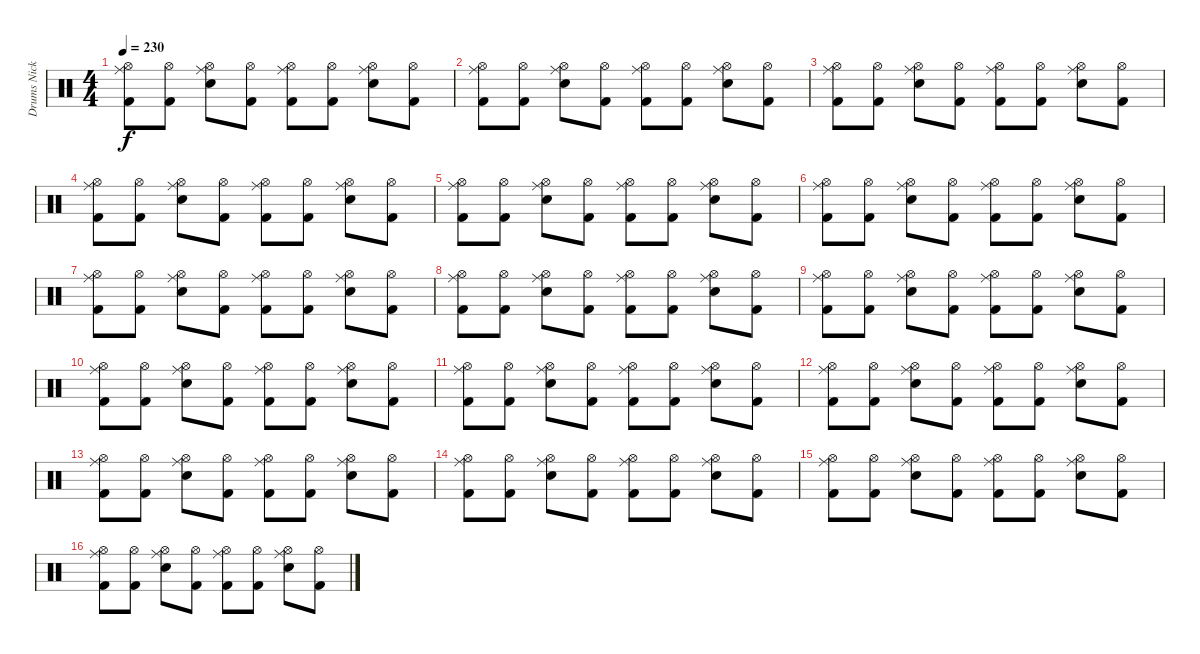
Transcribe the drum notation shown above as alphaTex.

\track ("Drums Nicko McBrain" "Drums Nick") {instrument percussion}
\staff {score}
\articulation defaults
\ts (4 4)
\tempo 230
\clef neutral
\ks c
("Hi-Hat (open)" "Ride (middle)" "Kick (hit) 2").8{dy f} ("Hi-Hat (open)" "Kick (hit) 2").8 ("Hi-Hat (open)" "Ride (middle)" "Snare (hit) 2").8 ("Hi-Hat (open)" "Kick (hit) 2").8 ("Hi-Hat (open)" "Ride (middle)" "Kick (hit) 2").8 ("Hi-Hat (open)" "Kick (hit) 2").8 ("Hi-Hat (open)" "Ride (middle)" "Snare (hit) 2").8 ("Hi-Hat (open)" "Kick (hit) 2").8 |
("Hi-Hat (open)" "Ride (middle)" "Kick (hit) 2").8 ("Hi-Hat (open)" "Kick (hit) 2").8 ("Hi-Hat (open)" "Ride (middle)" "Snare (hit) 2").8 ("Hi-Hat (open)" "Kick (hit) 2").8 ("Hi-Hat (open)" "Ride (middle)" "Kick (hit) 2").8 ("Hi-Hat (open)" "Kick (hit) 2").8 ("Hi-Hat (open)" "Ride (middle)" "Snare (hit) 2").8 ("Hi-Hat (open)" "Kick (hit) 2").8 |
("Hi-Hat (open)" "Ride (middle)" "Kick (hit) 2").8 ("Hi-Hat (open)" "Kick (hit) 2").8 ("Hi-Hat (open)" "Ride (middle)" "Snare (hit) 2").8 ("Hi-Hat (open)" "Kick (hit) 2").8 ("Hi-Hat (open)" "Ride (middle)" "Kick (hit) 2").8 ("Hi-Hat (open)" "Kick (hit) 2").8 ("Hi-Hat (open)" "Ride (middle)" "Snare (hit) 2").8 ("Hi-Hat (open)" "Kick (hit) 2").8 |
("Hi-Hat (open)" "Ride (middle)" "Kick (hit) 2").8 ("Hi-Hat (open)" "Kick (hit) 2").8 ("Hi-Hat (open)" "Ride (middle)" "Snare (hit) 2").8 ("Hi-Hat (open)" "Kick (hit) 2").8 ("Hi-Hat (open)" "Ride (middle)" "Kick (hit) 2").8 ("Hi-Hat (open)" "Kick (hit) 2").8 ("Hi-Hat (open)" "Ride (middle)" "Snare (hit) 2").8 ("Hi-Hat (open)" "Kick (hit) 2").8 |
("Hi-Hat (open)" "Ride (middle)" "Kick (hit) 2").8 ("Hi-Hat (open)" "Kick (hit) 2").8 ("Hi-Hat (open)" "Ride (middle)" "Snare (hit) 2").8 ("Hi-Hat (open)" "Kick (hit) 2").8 ("Hi-Hat (open)" "Ride (middle)" "Kick (hit) 2").8 ("Hi-Hat (open)" "Kick (hit) 2").8 ("Hi-Hat (open)" "Ride (middle)" "Snare (hit) 2").8 ("Hi-Hat (open)" "Kick (hit) 2").8 |
("Hi-Hat (open)" "Ride (middle)" "Kick (hit) 2").8 ("Hi-Hat (open)" "Kick (hit) 2").8 ("Hi-Hat (open)" "Ride (middle)" "Snare (hit) 2").8 ("Hi-Hat (open)" "Kick (hit) 2").8 ("Hi-Hat (open)" "Ride (middle)" "Kick (hit) 2").8 ("Hi-Hat (open)" "Kick (hit) 2").8 ("Hi-Hat (open)" "Ride (middle)" "Snare (hit) 2").8 ("Hi-Hat (open)" "Kick (hit) 2").8 |
("Hi-Hat (open)" "Ride (middle)" "Kick (hit) 2").8 ("Hi-Hat (open)" "Kick (hit) 2").8 ("Hi-Hat (open)" "Ride (middle)" "Snare (hit) 2").8 ("Hi-Hat (open)" "Kick (hit) 2").8 ("Hi-Hat (open)" "Ride (middle)" "Kick (hit) 2").8 ("Hi-Hat (open)" "Kick (hit) 2").8 ("Hi-Hat (open)" "Ride (middle)" "Snare (hit) 2").8 ("Hi-Hat (open)" "Kick (hit) 2").8 |
("Hi-Hat (open)" "Ride (middle)" "Kick (hit) 2").8 ("Hi-Hat (open)" "Kick (hit) 2").8 ("Hi-Hat (open)" "Ride (middle)" "Snare (hit) 2").8 ("Hi-Hat (open)" "Kick (hit) 2").8 ("Hi-Hat (open)" "Ride (middle)" "Kick (hit) 2").8 ("Hi-Hat (open)" "Kick (hit) 2").8 ("Hi-Hat (open)" "Ride (middle)" "Snare (hit) 2").8 ("Hi-Hat (open)" "Kick (hit) 2").8 |
("Hi-Hat (open)" "Ride (middle)" "Kick (hit) 2").8 ("Hi-Hat (open)" "Kick (hit) 2").8 ("Hi-Hat (open)" "Ride (middle)" "Snare (hit) 2").8 ("Hi-Hat (open)" "Kick (hit) 2").8 ("Hi-Hat (open)" "Ride (middle)" "Kick (hit) 2").8 ("Hi-Hat (open)" "Kick (hit) 2").8 ("Hi-Hat (open)" "Ride (middle)" "Snare (hit) 2").8 ("Hi-Hat (open)" "Kick (hit) 2").8 |
("Hi-Hat (open)" "Ride (middle)" "Kick (hit) 2").8 ("Hi-Hat (open)" "Kick (hit) 2").8 ("Hi-Hat (open)" "Ride (middle)" "Snare (hit) 2").8 ("Hi-Hat (open)" "Kick (hit) 2").8 ("Hi-Hat (open)" "Ride (middle)" "Kick (hit) 2").8 ("Hi-Hat (open)" "Kick (hit) 2").8 ("Hi-Hat (open)" "Ride (middle)" "Snare (hit) 2").8 ("Hi-Hat (open)" "Kick (hit) 2").8 |
("Hi-Hat (open)" "Ride (middle)" "Kick (hit) 2").8 ("Hi-Hat (open)" "Kick (hit) 2").8 ("Hi-Hat (open)" "Ride (middle)" "Snare (hit) 2").8 ("Hi-Hat (open)" "Kick (hit) 2").8 ("Hi-Hat (open)" "Ride (middle)" "Kick (hit) 2").8 ("Hi-Hat (open)" "Kick (hit) 2").8 ("Hi-Hat (open)" "Ride (middle)" "Snare (hit) 2").8 ("Hi-Hat (open)" "Kick (hit) 2").8 |
("Hi-Hat (open)" "Ride (middle)" "Kick (hit) 2").8 ("Hi-Hat (open)" "Kick (hit) 2").8 ("Hi-Hat (open)" "Ride (middle)" "Snare (hit) 2").8 ("Hi-Hat (open)" "Kick (hit) 2").8 ("Hi-Hat (open)" "Ride (middle)" "Kick (hit) 2").8 ("Hi-Hat (open)" "Kick (hit) 2").8 ("Hi-Hat (open)" "Ride (middle)" "Snare (hit) 2").8 ("Hi-Hat (open)" "Kick (hit) 2").8 |
("Hi-Hat (open)" "Ride (middle)" "Kick (hit) 2").8 ("Hi-Hat (open)" "Kick (hit) 2").8 ("Hi-Hat (open)" "Ride (middle)" "Snare (hit) 2").8 ("Hi-Hat (open)" "Kick (hit) 2").8 ("Hi-Hat (open)" "Ride (middle)" "Kick (hit) 2").8 ("Hi-Hat (open)" "Kick (hit) 2").8 ("Hi-Hat (open)" "Ride (middle)" "Snare (hit) 2").8 ("Hi-Hat (open)" "Kick (hit) 2").8 |
("Hi-Hat (open)" "Ride (middle)" "Kick (hit) 2").8 ("Hi-Hat (open)" "Kick (hit) 2").8 ("Hi-Hat (open)" "Ride (middle)" "Snare (hit) 2").8 ("Hi-Hat (open)" "Kick (hit) 2").8 ("Hi-Hat (open)" "Ride (middle)" "Kick (hit) 2").8 ("Hi-Hat (open)" "Kick (hit) 2").8 ("Hi-Hat (open)" "Ride (middle)" "Snare (hit) 2").8 ("Hi-Hat (open)" "Kick (hit) 2").8 |
("Hi-Hat (open)" "Ride (middle)" "Kick (hit) 2").8 ("Hi-Hat (open)" "Kick (hit) 2").8 ("Hi-Hat (open)" "Ride (middle)" "Snare (hit) 2").8 ("Hi-Hat (open)" "Kick (hit) 2").8 ("Hi-Hat (open)" "Ride (middle)" "Kick (hit) 2").8 ("Hi-Hat (open)" "Kick (hit) 2").8 ("Hi-Hat (open)" "Ride (middle)" "Snare (hit) 2").8 ("Hi-Hat (open)" "Kick (hit) 2").8 |
("Hi-Hat (open)" "Ride (middle)" "Kick (hit) 2").8 ("Hi-Hat (open)" "Kick (hit) 2").8 ("Hi-Hat (open)" "Ride (middle)" "Snare (hit) 2").8 ("Hi-Hat (open)" "Kick (hit) 2").8 ("Hi-Hat (open)" "Ride (middle)" "Kick (hit) 2").8 ("Hi-Hat (open)" "Kick (hit) 2").8 ("Hi-Hat (open)" "Ride (middle)" "Snare (hit) 2").8 ("Hi-Hat (open)" "Kick (hit) 2").8
